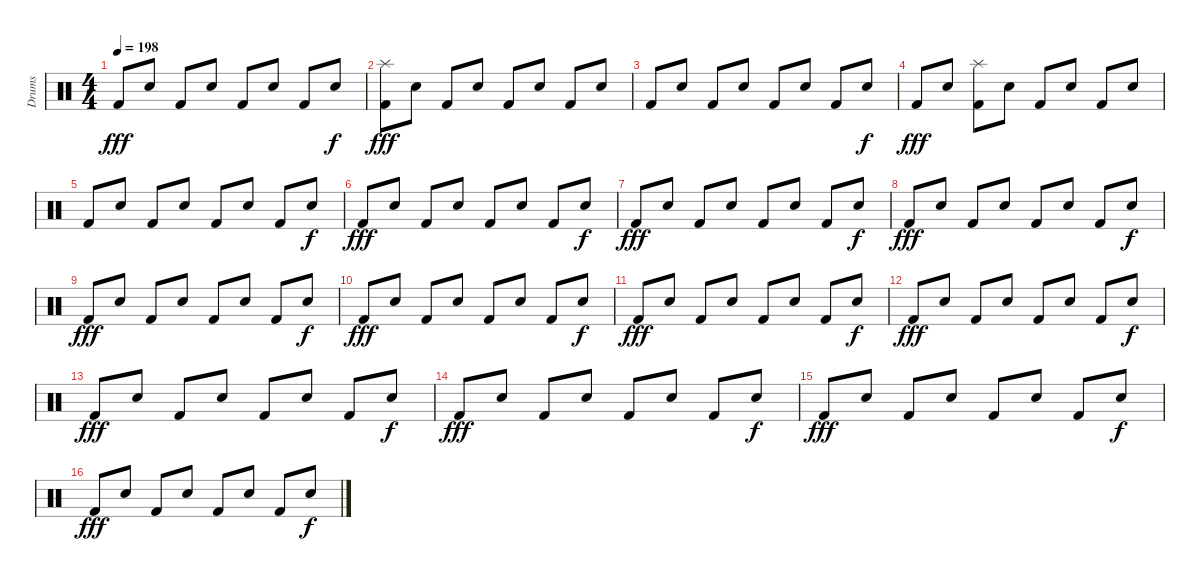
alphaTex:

\track ("Drums" "Drums") {instrument percussion}
\staff {score}
\articulation defaults
\ts (4 4)
\tempo 198
\clef neutral
\ks c "Kick (hit) 2".8{dy fff} "Snare (hit) 2".8 "Kick (hit) 2".8 "Snare (hit) 2".8 "Kick (hit) 2".8 "Snare (hit) 2".8 "Kick (hit) 2".8 "Snare (hit) 2".8{dy f}
|
("Splash (hit)" "Kick (hit) 2").8{dy fff} "Snare (hit) 2".8 "Kick (hit) 2".8 "Snare (hit) 2".8 "Kick (hit) 2".8 "Snare (hit) 2".8 "Kick (hit) 2".8 "Snare (hit) 2".8 |
"Kick (hit) 2".8 "Snare (hit) 2".8 "Kick (hit) 2".8 "Snare (hit) 2".8 "Kick (hit) 2".8 "Snare (hit) 2".8 "Kick (hit) 2".8 "Snare (hit) 2".8{dy f} |
"Kick (hit) 2".8{dy fff} "Snare (hit) 2".8 ("Splash (hit)" "Kick (hit) 2").8 "Snare (hit) 2".8 "Kick (hit) 2".8 "Snare (hit) 2".8 "Kick (hit) 2".8 "Snare (hit) 2".8 |
"Kick (hit) 2".8 "Snare (hit) 2".8 "Kick (hit) 2".8 "Snare (hit) 2".8 "Kick (hit) 2".8 "Snare (hit) 2".8 "Kick (hit) 2".8 "Snare (hit) 2".8{dy f} |
"Kick (hit) 2".8{dy fff} "Snare (hit) 2".8 "Kick (hit) 2".8 "Snare (hit) 2".8 "Kick (hit) 2".8 "Snare (hit) 2".8 "Kick (hit) 2".8 "Snare (hit) 2".8{dy f} |
"Kick (hit) 2".8{dy fff} "Snare (hit) 2".8 "Kick (hit) 2".8 "Snare (hit) 2".8 "Kick (hit) 2".8 "Snare (hit) 2".8 "Kick (hit) 2".8 "Snare (hit) 2".8{dy f} |
"Kick (hit) 2".8{dy fff} "Snare (hit) 2".8 "Kick (hit) 2".8 "Snare (hit) 2".8 "Kick (hit) 2".8 "Snare (hit) 2".8 "Kick (hit) 2".8 "Snare (hit) 2".8{dy f} |
"Kick (hit) 2".8{dy fff} "Snare (hit) 2".8 "Kick (hit) 2".8 "Snare (hit) 2".8 "Kick (hit) 2".8 "Snare (hit) 2".8 "Kick (hit) 2".8 "Snare (hit) 2".8{dy f} |
"Kick (hit) 2".8{dy fff} "Snare (hit) 2".8 "Kick (hit) 2".8 "Snare (hit) 2".8 "Kick (hit) 2".8 "Snare (hit) 2".8 "Kick (hit) 2".8 "Snare (hit) 2".8{dy f} |
"Kick (hit) 2".8{dy fff} "Snare (hit) 2".8 "Kick (hit) 2".8 "Snare (hit) 2".8 "Kick (hit) 2".8 "Snare (hit) 2".8 "Kick (hit) 2".8 "Snare (hit) 2".8{dy f} |
"Kick (hit) 2".8{dy fff} "Snare (hit) 2".8 "Kick (hit) 2".8 "Snare (hit) 2".8 "Kick (hit) 2".8 "Snare (hit) 2".8 "Kick (hit) 2".8 "Snare (hit) 2".8{dy f} |
"Kick (hit) 2".8{dy fff} "Snare (hit) 2".8 "Kick (hit) 2".8 "Snare (hit) 2".8 "Kick (hit) 2".8 "Snare (hit) 2".8 "Kick (hit) 2".8 "Snare (hit) 2".8{dy f} |
"Kick (hit) 2".8{dy fff} "Snare (hit) 2".8 "Kick (hit) 2".8 "Snare (hit) 2".8 "Kick (hit) 2".8 "Snare (hit) 2".8 "Kick (hit) 2".8 "Snare (hit) 2".8{dy f} |
"Kick (hit) 2".8{dy fff} "Snare (hit) 2".8 "Kick (hit) 2".8 "Snare (hit) 2".8 "Kick (hit) 2".8 "Snare (hit) 2".8 "Kick (hit) 2".8 "Snare (hit) 2".8{dy f} |
"Kick (hit) 2".8{dy fff} "Snare (hit) 2".8 "Kick (hit) 2".8 "Snare (hit) 2".8 "Kick (hit) 2".8 "Snare (hit) 2".8 "Kick (hit) 2".8 "Snare (hit) 2".8{dy f}
